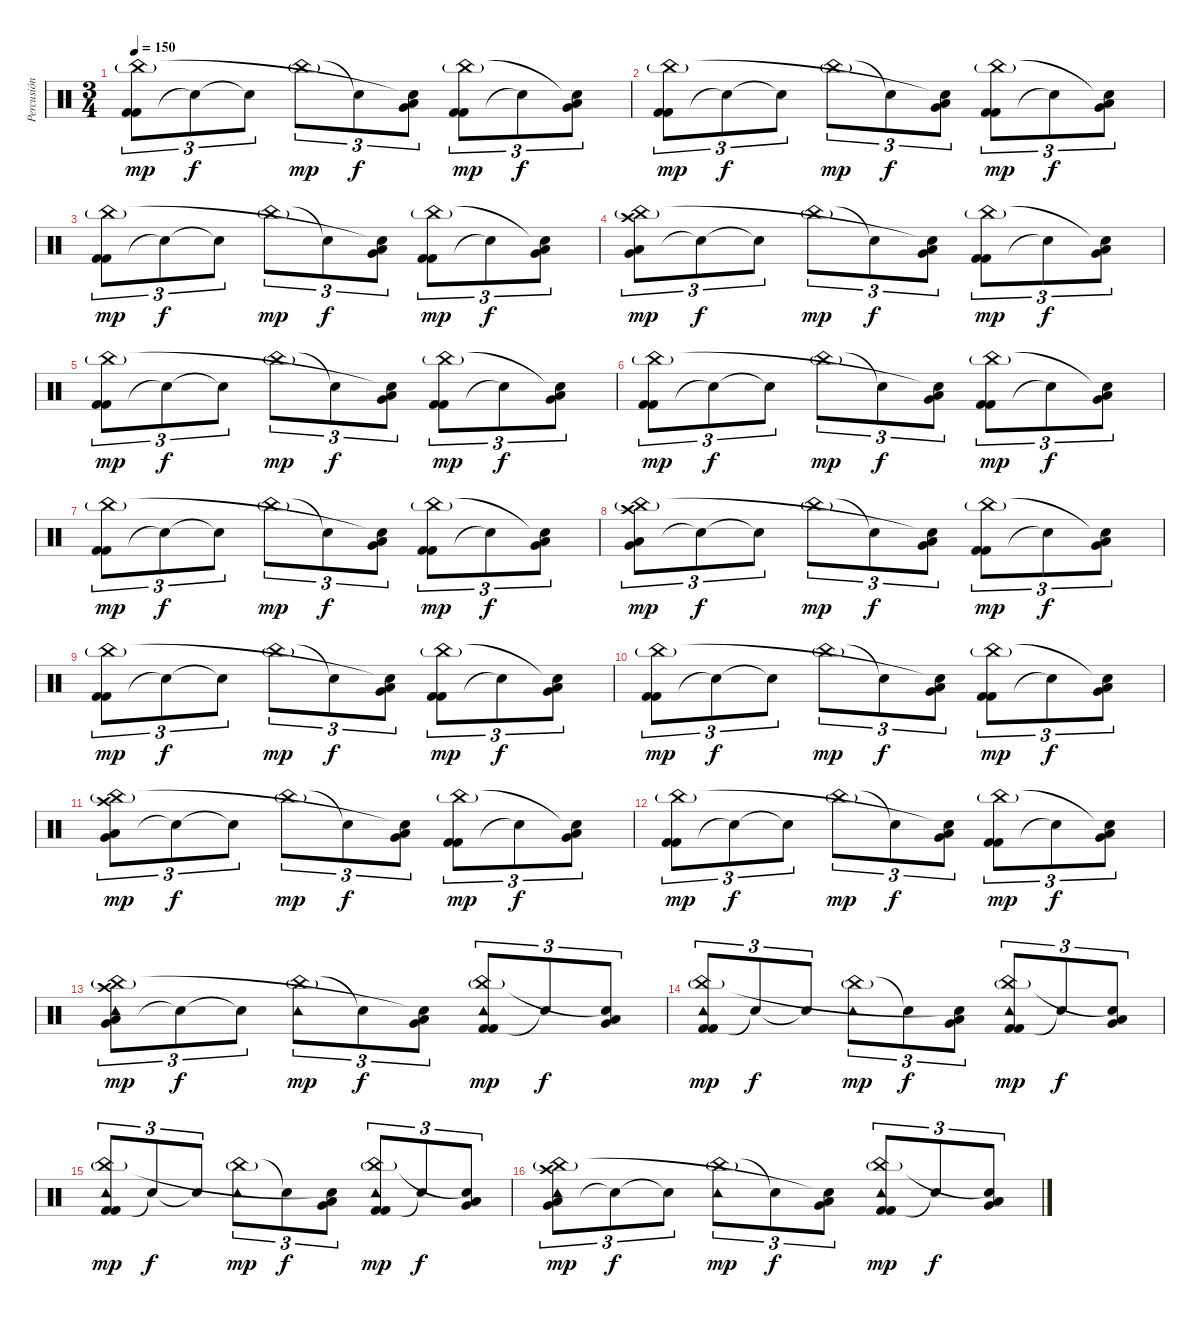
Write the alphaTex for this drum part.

\track ("Percusión" "Percusión") {instrument percussion}
\staff {score}
\articulation defaults
\ts (3 4)
\tempo 150
\clef neutral
\ks c
("Kick (hit) 2" "Kick (hit) 2" "China (hit)"{g}).8{tu (3 2) dy mp} "Snare (hit)"{t}.8{tu (3 2) dy f} "Snare (hit)"{t}.8{tu (3 2)} "China (hit)"{g}.8{tu (3 2) dy mp} "Snare (hit)"{t}.8{tu (3 2) dy f} ("Low Floor Tom (hit)" "Very Low Tom (hit)" "Snare (hit)"{t}).8{tu (3 2)} ("Kick (hit) 2" "Kick (hit) 2" "China (hit)"{g}).8{tu (3 2) dy mp} "Snare (hit)"{t}.8{tu (3 2) dy f} ("Low Floor Tom (hit)" "Very Low Tom (hit)" "Snare (hit)"{t}).8{tu (3 2)} |
("Kick (hit) 2" "Kick (hit) 2" "China (hit)"{g}).8{tu (3 2) dy mp} "Snare (hit)"{t}.8{tu (3 2) dy f} "Snare (hit)"{t}.8{tu (3 2)} "China (hit)"{g}.8{tu (3 2) dy mp} "Snare (hit)"{t}.8{tu (3 2) dy f} ("Low Floor Tom (hit)" "Very Low Tom (hit)" "Snare (hit)"{t}).8{tu (3 2)} ("Kick (hit) 2" "Kick (hit) 2" "China (hit)"{g}).8{tu (3 2) dy mp} "Snare (hit)"{t}.8{tu (3 2) dy f} ("Low Floor Tom (hit)" "Very Low Tom (hit)" "Snare (hit)"{t}).8{tu (3 2)} |
("Kick (hit) 2" "Kick (hit) 2" "China (hit)"{g}).8{tu (3 2) dy mp} "Snare (hit)"{t}.8{tu (3 2) dy f} "Snare (hit)"{t}.8{tu (3 2)} "China (hit)"{g}.8{tu (3 2) dy mp} "Snare (hit)"{t}.8{tu (3 2) dy f} ("Low Floor Tom (hit)" "Very Low Tom (hit)" "Snare (hit)"{t}).8{tu (3 2)} ("Kick (hit) 2" "Kick (hit) 2" "China (hit)"{g}).8{tu (3 2) dy mp} "Snare (hit)"{t}.8{tu (3 2) dy f} ("Low Floor Tom (hit)" "Very Low Tom (hit)" "Snare (hit)"{t}).8{tu (3 2)} |
("Low Floor Tom (hit)" "Very Low Tom (hit)" "China (hit)"{g} "Crash high (hit)").8{tu (3 2) dy mp} "Snare (hit)"{t}.8{tu (3 2) dy f} "Snare (hit)"{t}.8{tu (3 2)} "China (hit)"{g}.8{tu (3 2) dy mp} "Snare (hit)"{t}.8{tu (3 2) dy f} ("Low Floor Tom (hit)" "Very Low Tom (hit)" "Snare (hit)"{t}).8{tu (3 2)} ("Kick (hit) 2" "Kick (hit) 2" "China (hit)"{g}).8{tu (3 2) dy mp} "Snare (hit)"{t}.8{tu (3 2) dy f} ("Low Floor Tom (hit)" "Very Low Tom (hit)" "Snare (hit)"{t}).8{tu (3 2)} |
("Kick (hit) 2" "Kick (hit) 2" "China (hit)"{g}).8{tu (3 2) dy mp} "Snare (hit)"{t}.8{tu (3 2) dy f} "Snare (hit)"{t}.8{tu (3 2)} "China (hit)"{g}.8{tu (3 2) dy mp} "Snare (hit)"{t}.8{tu (3 2) dy f} ("Low Floor Tom (hit)" "Very Low Tom (hit)" "Snare (hit)"{t}).8{tu (3 2)} ("Kick (hit) 2" "Kick (hit) 2" "China (hit)"{g}).8{tu (3 2) dy mp} "Snare (hit)"{t}.8{tu (3 2) dy f} ("Low Floor Tom (hit)" "Very Low Tom (hit)" "Snare (hit)"{t}).8{tu (3 2)} |
("Kick (hit) 2" "Kick (hit) 2" "China (hit)"{g}).8{tu (3 2) dy mp} "Snare (hit)"{t}.8{tu (3 2) dy f} "Snare (hit)"{t}.8{tu (3 2)} "China (hit)"{g}.8{tu (3 2) dy mp} "Snare (hit)"{t}.8{tu (3 2) dy f} ("Low Floor Tom (hit)" "Very Low Tom (hit)" "Snare (hit)"{t}).8{tu (3 2)} ("Kick (hit) 2" "Kick (hit) 2" "China (hit)"{g}).8{tu (3 2) dy mp} "Snare (hit)"{t}.8{tu (3 2) dy f} ("Low Floor Tom (hit)" "Very Low Tom (hit)" "Snare (hit)"{t}).8{tu (3 2)} |
("Kick (hit) 2" "Kick (hit) 2" "China (hit)"{g}).8{tu (3 2) dy mp} "Snare (hit)"{t}.8{tu (3 2) dy f} "Snare (hit)"{t}.8{tu (3 2)} "China (hit)"{g}.8{tu (3 2) dy mp} "Snare (hit)"{t}.8{tu (3 2) dy f} ("Low Floor Tom (hit)" "Very Low Tom (hit)" "Snare (hit)"{t}).8{tu (3 2)} ("Kick (hit) 2" "Kick (hit) 2" "China (hit)"{g}).8{tu (3 2) dy mp} "Snare (hit)"{t}.8{tu (3 2) dy f} ("Low Floor Tom (hit)" "Very Low Tom (hit)" "Snare (hit)"{t}).8{tu (3 2)} |
("Low Floor Tom (hit)" "Very Low Tom (hit)" "China (hit)"{g} "Crash high (hit)").8{tu (3 2) dy mp} "Snare (hit)"{t}.8{tu (3 2) dy f} "Snare (hit)"{t}.8{tu (3 2)} "China (hit)"{g}.8{tu (3 2) dy mp} "Snare (hit)"{t}.8{tu (3 2) dy f} ("Low Floor Tom (hit)" "Very Low Tom (hit)" "Snare (hit)"{t}).8{tu (3 2)} ("Kick (hit) 2" "Kick (hit) 2" "China (hit)"{g}).8{tu (3 2) dy mp} "Snare (hit)"{t}.8{tu (3 2) dy f} ("Low Floor Tom (hit)" "Very Low Tom (hit)" "Snare (hit)"{t}).8{tu (3 2)} |
("Kick (hit) 2" "Kick (hit) 2" "China (hit)"{g}).8{tu (3 2) dy mp} "Snare (hit)"{t}.8{tu (3 2) dy f} "Snare (hit)"{t}.8{tu (3 2)} "China (hit)"{g}.8{tu (3 2) dy mp} "Snare (hit)"{t}.8{tu (3 2) dy f} ("Low Floor Tom (hit)" "Very Low Tom (hit)" "Snare (hit)"{t}).8{tu (3 2)} ("Kick (hit) 2" "Kick (hit) 2" "China (hit)"{g}).8{tu (3 2) dy mp} "Snare (hit)"{t}.8{tu (3 2) dy f} ("Low Floor Tom (hit)" "Very Low Tom (hit)" "Snare (hit)"{t}).8{tu (3 2)} |
("Kick (hit) 2" "Kick (hit) 2" "China (hit)"{g}).8{tu (3 2) dy mp} "Snare (hit)"{t}.8{tu (3 2) dy f} "Snare (hit)"{t}.8{tu (3 2)} "China (hit)"{g}.8{tu (3 2) dy mp} "Snare (hit)"{t}.8{tu (3 2) dy f} ("Low Floor Tom (hit)" "Very Low Tom (hit)" "Snare (hit)"{t}).8{tu (3 2)} ("Kick (hit) 2" "Kick (hit) 2" "China (hit)"{g}).8{tu (3 2) dy mp} "Snare (hit)"{t}.8{tu (3 2) dy f} ("Low Floor Tom (hit)" "Very Low Tom (hit)" "Snare (hit)"{t}).8{tu (3 2)} |
("Low Floor Tom (hit)" "Very Low Tom (hit)" "China (hit)"{g} "Crash high (hit)").8{tu (3 2) dy mp} "Snare (hit)"{t}.8{tu (3 2) dy f} "Snare (hit)"{t}.8{tu (3 2)} "China (hit)"{g}.8{tu (3 2) dy mp} "Snare (hit)"{t}.8{tu (3 2) dy f} ("Low Floor Tom (hit)" "Very Low Tom (hit)" "Snare (hit)"{t}).8{tu (3 2)} ("Kick (hit) 2" "Kick (hit) 2" "China (hit)"{g}).8{tu (3 2) dy mp} "Snare (hit)"{t}.8{tu (3 2) dy f} ("Low Floor Tom (hit)" "Very Low Tom (hit)" "Snare (hit)"{t}).8{tu (3 2)} |
("Kick (hit) 2" "Kick (hit) 2" "China (hit)"{g}).8{tu (3 2) dy mp} "Snare (hit)"{t}.8{tu (3 2) dy f} "Snare (hit)"{t}.8{tu (3 2)} "China (hit)"{g}.8{tu (3 2) dy mp} "Snare (hit)"{t}.8{tu (3 2) dy f} ("Low Floor Tom (hit)" "Very Low Tom (hit)" "Snare (hit)"{t}).8{tu (3 2)} ("Kick (hit) 2" "Kick (hit) 2" "China (hit)"{g}).8{tu (3 2) dy mp} "Snare (hit)"{t}.8{tu (3 2) dy f} ("Low Floor Tom (hit)" "Very Low Tom (hit)" "Snare (hit)"{t}).8{tu (3 2)} |
("Low Floor Tom (hit)" "Very Low Tom (hit)" "China (hit)"{g} "Crash high (hit)" "Tambourine (hit)").8{tu (3 2) dy mp} "Snare (hit)"{t}.8{tu (3 2) dy f} "Snare (hit)"{t}.8{tu (3 2)} ("China (hit)"{g} "Tambourine (hit)").8{tu (3 2) dy mp} "Snare (hit)"{t}.8{tu (3 2) dy f} ("Low Floor Tom (hit)" "Very Low Tom (hit)" "Snare (hit)"{t}).8{tu (3 2)} ("Kick (hit) 2" "Kick (hit) 2" "China (hit)"{g} "Tambourine (hit)").8{tu (3 2) dy mp} "Snare (hit)"{t}.8{tu (3 2) dy f} ("Low Floor Tom (hit)" "Very Low Tom (hit)" "Snare (hit)"{t}).8{tu (3 2)} |
("Kick (hit) 2" "Kick (hit) 2" "China (hit)"{g} "Tambourine (hit)").8{tu (3 2) dy mp} "Snare (hit)"{t}.8{tu (3 2) dy f} "Snare (hit)"{t}.8{tu (3 2)} ("China (hit)"{g} "Tambourine (hit)").8{tu (3 2) dy mp} "Snare (hit)"{t}.8{tu (3 2) dy f} ("Low Floor Tom (hit)" "Very Low Tom (hit)" "Snare (hit)"{t}).8{tu (3 2)} ("Kick (hit) 2" "Kick (hit) 2" "China (hit)"{g} "Tambourine (hit)").8{tu (3 2) dy mp} "Snare (hit)"{t}.8{tu (3 2) dy f} ("Low Floor Tom (hit)" "Very Low Tom (hit)" "Snare (hit)"{t}).8{tu (3 2)} |
("Kick (hit) 2" "Kick (hit) 2" "China (hit)"{g} "Tambourine (hit)").8{tu (3 2) dy mp} "Snare (hit)"{t}.8{tu (3 2) dy f} "Snare (hit)"{t}.8{tu (3 2)} ("China (hit)"{g} "Tambourine (hit)").8{tu (3 2) dy mp} "Snare (hit)"{t}.8{tu (3 2) dy f} ("Low Floor Tom (hit)" "Very Low Tom (hit)" "Snare (hit)"{t}).8{tu (3 2)} ("Kick (hit) 2" "Kick (hit) 2" "China (hit)"{g} "Tambourine (hit)").8{tu (3 2) dy mp} "Snare (hit)"{t}.8{tu (3 2) dy f} ("Low Floor Tom (hit)" "Very Low Tom (hit)" "Snare (hit)"{t}).8{tu (3 2)} |
("Low Floor Tom (hit)" "Very Low Tom (hit)" "China (hit)"{g} "Crash high (hit)" "Tambourine (hit)").8{tu (3 2) dy mp} "Snare (hit)"{t}.8{tu (3 2) dy f} "Snare (hit)"{t}.8{tu (3 2)} ("China (hit)"{g} "Tambourine (hit)").8{tu (3 2) dy mp} "Snare (hit)"{t}.8{tu (3 2) dy f} ("Low Floor Tom (hit)" "Very Low Tom (hit)" "Snare (hit)"{t}).8{tu (3 2)} ("Kick (hit) 2" "Kick (hit) 2" "China (hit)"{g} "Tambourine (hit)").8{tu (3 2) dy mp} "Snare (hit)"{t}.8{tu (3 2) dy f} ("Low Floor Tom (hit)" "Very Low Tom (hit)" "Snare (hit)"{t}).8{tu (3 2)}
